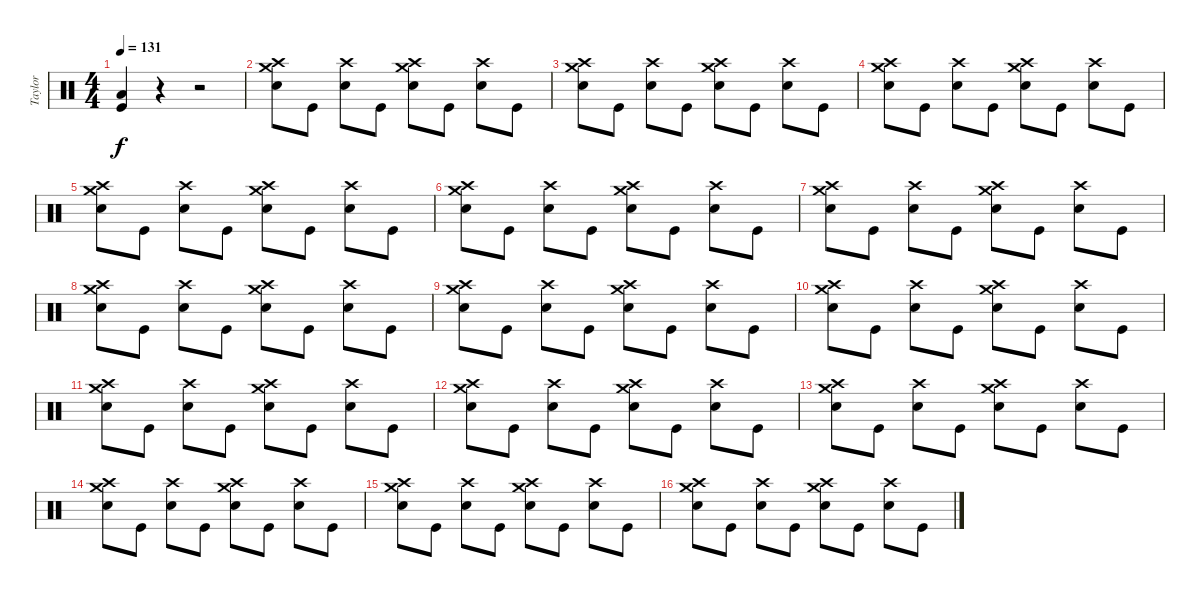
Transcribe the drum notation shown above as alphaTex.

\track ("Taylor" "Taylor") {instrument percussion}
\staff {score}
\articulation defaults
\ts (4 4)
\tempo 131
\clef neutral
\ks c
("Low Floor Tom (hit)" "Kick (hit)").4{dy f} r.4 r.2 |
("Crash medium (hit)" "Crash high (hit)" "Snare (hit) 2").8 "Kick (hit)".8 ("Crash high (hit)" "Snare (hit) 2").8 "Kick (hit)".8 ("Crash high (hit)" "Snare (hit) 2" "Crash medium (hit)").8 "Kick (hit)".8 ("Crash high (hit)" "Snare (hit) 2").8 "Kick (hit)".8 |
("Crash medium (hit)" "Crash high (hit)" "Snare (hit) 2").8 "Kick (hit)".8 ("Crash high (hit)" "Snare (hit) 2").8 "Kick (hit)".8 ("Crash high (hit)" "Snare (hit) 2" "Crash medium (hit)").8 "Kick (hit)".8 ("Crash high (hit)" "Snare (hit) 2").8 "Kick (hit)".8 |
("Crash medium (hit)" "Crash high (hit)" "Snare (hit) 2").8 "Kick (hit)".8 ("Crash high (hit)" "Snare (hit) 2").8 "Kick (hit)".8 ("Crash high (hit)" "Snare (hit) 2" "Crash medium (hit)").8 "Kick (hit)".8 ("Crash high (hit)" "Snare (hit) 2").8 "Kick (hit)".8 |
("Crash medium (hit)" "Crash high (hit)" "Snare (hit) 2").8 "Kick (hit)".8 ("Crash high (hit)" "Snare (hit) 2").8 "Kick (hit)".8 ("Crash high (hit)" "Snare (hit) 2" "Crash medium (hit)").8 "Kick (hit)".8 ("Crash high (hit)" "Snare (hit) 2").8 "Kick (hit)".8 |
("Crash medium (hit)" "Crash high (hit)" "Snare (hit) 2").8 "Kick (hit)".8 ("Crash high (hit)" "Snare (hit) 2").8 "Kick (hit)".8 ("Crash high (hit)" "Snare (hit) 2" "Crash medium (hit)").8 "Kick (hit)".8 ("Crash high (hit)" "Snare (hit) 2").8 "Kick (hit)".8 |
("Crash medium (hit)" "Crash high (hit)" "Snare (hit) 2").8 "Kick (hit)".8 ("Crash high (hit)" "Snare (hit) 2").8 "Kick (hit)".8 ("Crash high (hit)" "Snare (hit) 2" "Crash medium (hit)").8 "Kick (hit)".8 ("Crash high (hit)" "Snare (hit) 2").8 "Kick (hit)".8 |
("Crash medium (hit)" "Crash high (hit)" "Snare (hit) 2").8 "Kick (hit)".8 ("Crash high (hit)" "Snare (hit) 2").8 "Kick (hit)".8 ("Crash high (hit)" "Snare (hit) 2" "Crash medium (hit)").8 "Kick (hit)".8 ("Crash high (hit)" "Snare (hit) 2").8 "Kick (hit)".8 |
("Crash medium (hit)" "Crash high (hit)" "Snare (hit) 2").8 "Kick (hit)".8 ("Crash high (hit)" "Snare (hit) 2").8 "Kick (hit)".8 ("Crash high (hit)" "Snare (hit) 2" "Crash medium (hit)").8 "Kick (hit)".8 ("Crash high (hit)" "Snare (hit) 2").8 "Kick (hit)".8 |
("Crash medium (hit)" "Crash high (hit)" "Snare (hit) 2").8 "Kick (hit)".8 ("Crash high (hit)" "Snare (hit) 2").8 "Kick (hit)".8 ("Crash high (hit)" "Snare (hit) 2" "Crash medium (hit)").8 "Kick (hit)".8 ("Crash high (hit)" "Snare (hit) 2").8 "Kick (hit)".8 |
("Crash medium (hit)" "Crash high (hit)" "Snare (hit) 2").8 "Kick (hit)".8 ("Crash high (hit)" "Snare (hit) 2").8 "Kick (hit)".8 ("Crash high (hit)" "Snare (hit) 2" "Crash medium (hit)").8 "Kick (hit)".8 ("Crash high (hit)" "Snare (hit) 2").8 "Kick (hit)".8 |
("Crash medium (hit)" "Crash high (hit)" "Snare (hit) 2").8 "Kick (hit)".8 ("Crash high (hit)" "Snare (hit) 2").8 "Kick (hit)".8 ("Crash high (hit)" "Snare (hit) 2" "Crash medium (hit)").8 "Kick (hit)".8 ("Crash high (hit)" "Snare (hit) 2").8 "Kick (hit)".8 |
("Crash medium (hit)" "Crash high (hit)" "Snare (hit) 2").8 "Kick (hit)".8 ("Crash high (hit)" "Snare (hit) 2").8 "Kick (hit)".8 ("Crash high (hit)" "Snare (hit) 2" "Crash medium (hit)").8 "Kick (hit)".8 ("Crash high (hit)" "Snare (hit) 2").8 "Kick (hit)".8 |
("Crash medium (hit)" "Crash high (hit)" "Snare (hit) 2").8 "Kick (hit)".8 ("Crash high (hit)" "Snare (hit) 2").8 "Kick (hit)".8 ("Crash high (hit)" "Snare (hit) 2" "Crash medium (hit)").8 "Kick (hit)".8 ("Crash high (hit)" "Snare (hit) 2").8 "Kick (hit)".8 |
("Crash medium (hit)" "Crash high (hit)" "Snare (hit) 2").8 "Kick (hit)".8 ("Crash high (hit)" "Snare (hit) 2").8 "Kick (hit)".8 ("Crash high (hit)" "Snare (hit) 2" "Crash medium (hit)").8 "Kick (hit)".8 ("Crash high (hit)" "Snare (hit) 2").8 "Kick (hit)".8 |
("Crash medium (hit)" "Crash high (hit)" "Snare (hit) 2").8 "Kick (hit)".8 ("Crash high (hit)" "Snare (hit) 2").8 "Kick (hit)".8 ("Crash high (hit)" "Snare (hit) 2" "Crash medium (hit)").8 "Kick (hit)".8 ("Crash high (hit)" "Snare (hit) 2").8 "Kick (hit)".8
